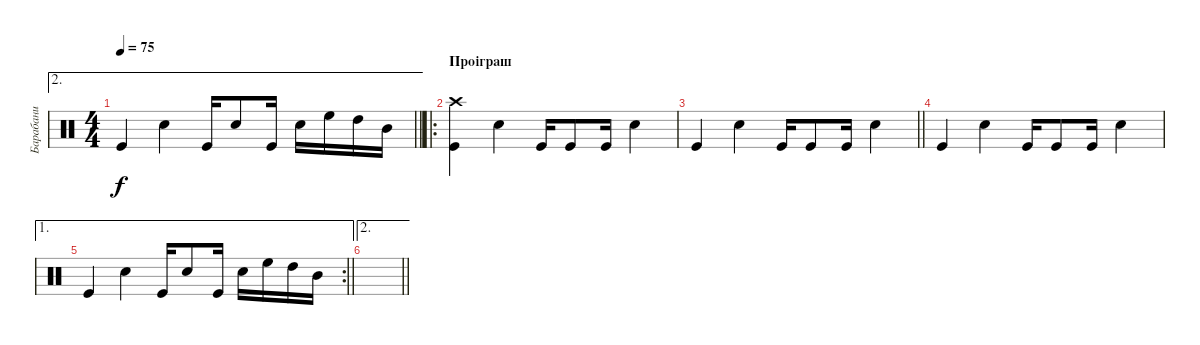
\track ("Барабани" "Барабани") {instrument percussion}
\staff {score}
\articulation defaults
\ae 2
\ts (4 4)
\tempo 75
\clef neutral
\barLineRight lightlight
\ks c "Kick (hit)".4{dy f} "Snare (hit) 2".4 "Kick (hit)".16 "Snare (hit) 2".8 "Kick (hit)".16 "Snare (hit) 2".16 "High Floor Tom (hit)".16 "High Tom (hit)".16 "Mid Tom (hit)".16
|
\ro
\section ("" "Проіграш")
("Crash high (hit)" "Kick (hit)").4 "Snare (hit) 2".4 "Kick (hit)".16 "Kick (hit)".8 "Kick (hit)".16 "Snare (hit) 2".4 |
\barLineRight lightlight "Kick (hit)".4 "Snare (hit) 2".4 "Kick (hit)".16 "Kick (hit)".8 "Kick (hit)".16 "Snare (hit) 2".4
|
"Kick (hit)".4 "Snare (hit) 2".4 "Kick (hit)".16 "Kick (hit)".8 "Kick (hit)".16 "Snare (hit) 2".4 |
\ae 1
\rc 2
\barLineRight lightlight "Kick (hit)".4 "Snare (hit) 2".4 "Kick (hit)".16 "Snare (hit) 2".8 "Kick (hit)".16 "Snare (hit) 2".16 "High Floor Tom (hit)".16 "High Tom (hit)".16 "Mid Tom (hit)".16
|
\ae 2
\barLineRight lightlight
